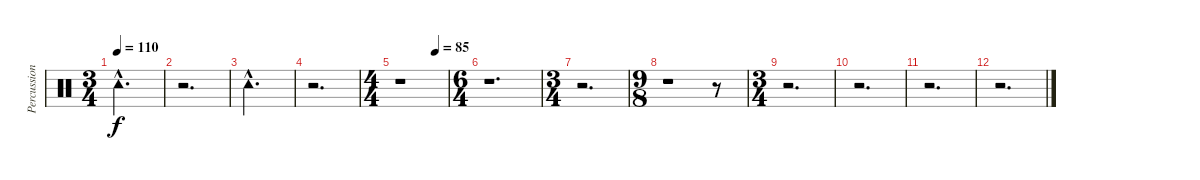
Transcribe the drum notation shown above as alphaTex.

\track ("Percussion" "Percussion") {instrument percussion}
\staff {score}
\articulation defaults
\ts (3 4)
\tempo 110
\clef neutral
\ks c "Tambourine (hit)"{hac}.2{d dy f}
|
r.2{d} |
"Tambourine (hit)"{hac}.2{d} |
r.2{d} |
\ts (4 4)
\tempo (85 0.75)
r.1 |
\ts (6 4)
r.1{d} |
\ts (3 4)
r.2{d} |
\ts (9 8)
r.1 r.8 |
\ts (3 4)
r.2{d} |
r.2{d} |
r.2{d} |
r.2{d}
